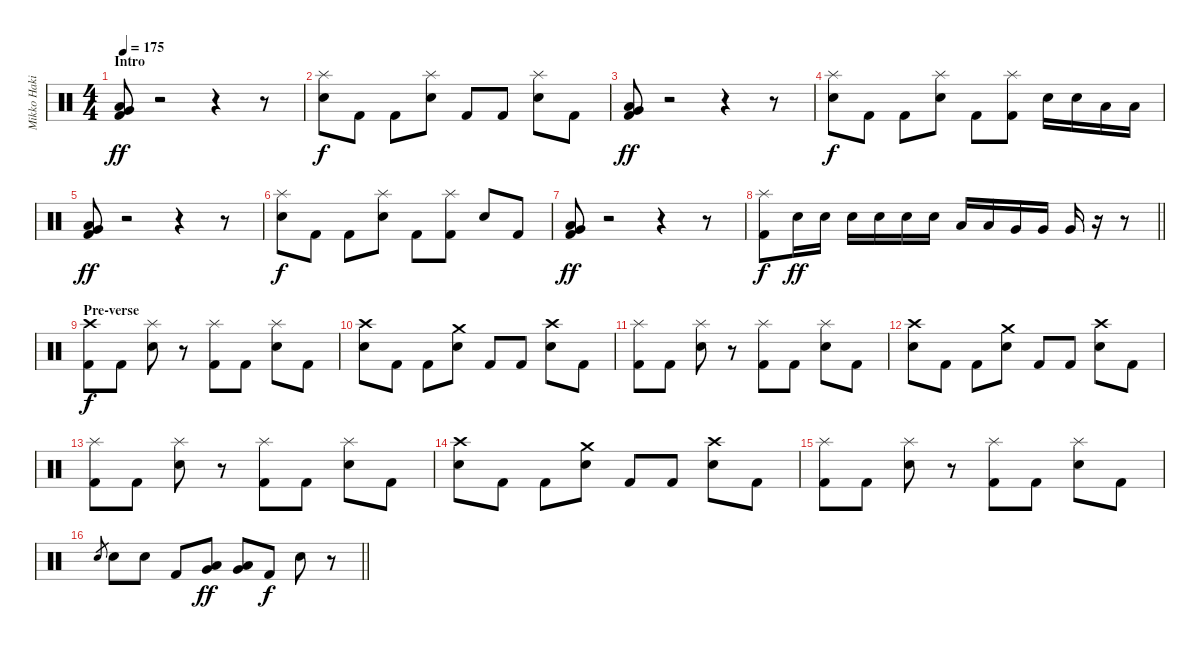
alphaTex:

\track ("Mikko Hakila - Drums" "Mikko Haki") {instrument percussion}
\staff {score}
\articulation defaults
\ts (4 4)
\section ("" "Intro")
\tempo 175
\clef neutral
\ks c
("Low Tom (hit)" "Very Low Tom (hit)" "Kick (hit) 2").8{dy ff} r.2 r.4 r.8 |
("Splash (hit)" "Electric Snare (hit)").8{dy f} "Kick (hit) 2".8 "Kick (hit) 2".8 ("Splash (hit)" "Electric Snare (hit)").8 "Kick (hit) 2".8 "Kick (hit) 2".8 ("Splash (hit)" "Electric Snare (hit)").8 "Kick (hit) 2".8 |
("Low Tom (hit)" "Very Low Tom (hit)" "Kick (hit) 2").8{dy ff} r.2 r.4 r.8 |
("Splash (hit)" "Electric Snare (hit)").8{dy f} "Kick (hit) 2".8 "Kick (hit) 2".8 ("Splash (hit)" "Electric Snare (hit)").8 "Kick (hit) 2".8 ("Splash (hit)" "Kick (hit) 2").8 "Electric Snare (hit)".16 "Electric Snare (hit)".16 "Low Tom (hit)".16 "Low Tom (hit)".16 |
("Low Tom (hit)" "Very Low Tom (hit)" "Kick (hit) 2").8{dy ff} r.2 r.4 r.8 |
("Splash (hit)" "Electric Snare (hit)").8{dy f} "Kick (hit) 2".8 "Kick (hit) 2".8 ("Splash (hit)" "Electric Snare (hit)").8 "Kick (hit) 2".8 ("Splash (hit)" "Kick (hit) 2").8 "Electric Snare (hit)".8 "Kick (hit) 2".8 |
("Low Tom (hit)" "Very Low Tom (hit)" "Kick (hit) 2").8{dy ff} r.2 r.4 r.8 |
\barLineRight lightlight
("Splash (hit)" "Kick (hit) 2").8{dy f} "Electric Snare (hit)".16{dy ff} "Electric Snare (hit)".16 "Electric Snare (hit)".16 "Electric Snare (hit)".16 "Electric Snare (hit)".16 "Electric Snare (hit)".16 "Low Tom (hit)".16 "Low Tom (hit)".16 "Very Low Tom (hit)".16 "Very Low Tom (hit)".16 "Very Low Tom (hit)".16 r.16 r.8 |
\section ("" "Pre-verse")
("Crash high (hit)" "Kick (hit) 2").8{dy f} "Kick (hit) 2".8 ("Splash (hit)" "Electric Snare (hit)").8 r.8 ("Splash (hit)" "Kick (hit) 2").8 "Kick (hit) 2".8 ("Splash (hit)" "Electric Snare (hit)").8 "Kick (hit) 2".8 |
("Crash high (hit)" "Electric Snare (hit)").8 "Kick (hit) 2".8 "Kick (hit) 2".8 ("Crash medium (hit)" "Electric Snare (hit)").8 "Kick (hit) 2".8 "Kick (hit) 2".8 ("Crash high (hit)" "Electric Snare (hit)").8 "Kick (hit) 2".8 |
("Splash (hit)" "Kick (hit) 2").8 "Kick (hit) 2".8 ("Splash (hit)" "Electric Snare (hit)").8 r.8 ("Splash (hit)" "Kick (hit) 2").8 "Kick (hit) 2".8 ("Splash (hit)" "Electric Snare (hit)").8 "Kick (hit) 2".8 |
("Crash high (hit)" "Electric Snare (hit)").8 "Kick (hit) 2".8 "Kick (hit) 2".8 ("Crash medium (hit)" "Electric Snare (hit)").8 "Kick (hit) 2".8 "Kick (hit) 2".8 ("Crash high (hit)" "Electric Snare (hit)").8 "Kick (hit) 2".8 |
("Splash (hit)" "Kick (hit) 2").8 "Kick (hit) 2".8 ("Splash (hit)" "Electric Snare (hit)").8 r.8 ("Splash (hit)" "Kick (hit) 2").8 "Kick (hit) 2".8 ("Splash (hit)" "Electric Snare (hit)").8 "Kick (hit) 2".8 |
("Crash high (hit)" "Electric Snare (hit)").8 "Kick (hit) 2".8 "Kick (hit) 2".8 ("Crash medium (hit)" "Electric Snare (hit)").8 "Kick (hit) 2".8 "Kick (hit) 2".8 ("Crash high (hit)" "Electric Snare (hit)").8 "Kick (hit) 2".8 |
("Splash (hit)" "Kick (hit) 2").8 "Kick (hit) 2".8 ("Splash (hit)" "Electric Snare (hit)").8 r.8 ("Splash (hit)" "Kick (hit) 2").8 "Kick (hit) 2".8 ("Splash (hit)" "Electric Snare (hit)").8 "Kick (hit) 2".8 |
\barLineRight lightlight "Electric Snare (hit)".8{gr} "Electric Snare (hit)".8 "Electric Snare (hit)".8 "Kick (hit) 2".8
("Low Tom (hit)" "Very Low Tom (hit)").8{dy ff} ("Low Tom (hit)" "Very Low Tom (hit)").8 "Kick (hit) 2".8{dy f} "Electric Snare (hit)".8 r.8
